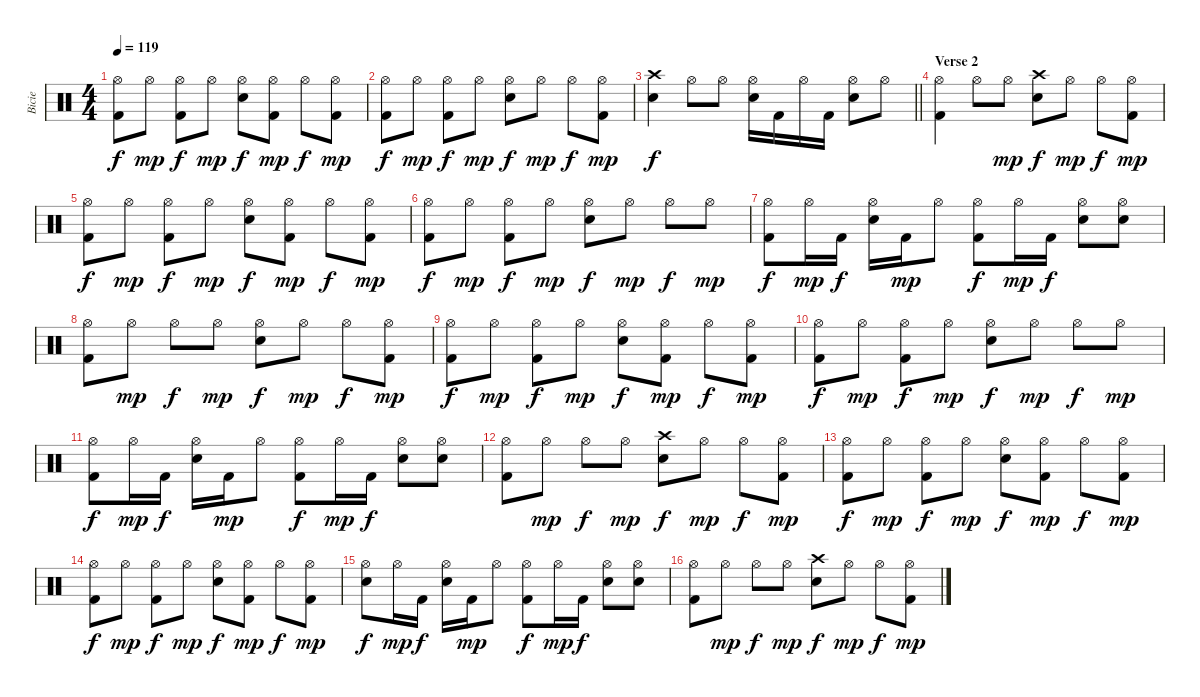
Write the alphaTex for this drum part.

\track ("Bicie" "Bicie") {instrument percussion}
\staff {score}
\articulation defaults
\ts (4 4)
\tempo 119
\clef neutral
\ks c
("Hi-Hat (open)" "Kick (hit) 2").8{dy f} "Hi-Hat (open)".8{dy mp} ("Hi-Hat (open)" "Kick (hit) 2").8{dy f} "Hi-Hat (open)".8{dy mp} ("Hi-Hat (open)" "Snare (hit) 2").8{dy f} ("Hi-Hat (open)" "Kick (hit) 2").8{dy mp} "Hi-Hat (open)".8{dy f} ("Hi-Hat (open)" "Kick (hit) 2").8{dy mp} |
("Hi-Hat (open)" "Kick (hit) 2").8{dy f} "Hi-Hat (open)".8{dy mp} ("Hi-Hat (open)" "Kick (hit) 2").8{dy f} "Hi-Hat (open)".8{dy mp} ("Hi-Hat (open)" "Snare (hit) 2").8{dy f} "Hi-Hat (open)".8{dy mp} "Hi-Hat (open)".8{dy f} ("Hi-Hat (open)" "Kick (hit) 2").8{dy mp} |
\barLineRight lightlight
("Crash high (hit)" "Snare (hit) 2").4{dy f} "Hi-Hat (open)".8 "Hi-Hat (open)".8 ("Hi-Hat (open)" "Snare (hit) 2").16 "Kick (hit) 2".16 "Hi-Hat (open)".16 "Kick (hit) 2".16 ("Hi-Hat (open)" "Snare (hit) 2").8 "Hi-Hat (open)".8 |
\section ("" "Verse 2")
("Hi-Hat (open)" "Kick (hit) 2").4 "Hi-Hat (open)".8 "Hi-Hat (open)".8{dy mp} ("Crash high (hit)" "Snare (hit) 2").8{dy f} "Hi-Hat (open)".8{dy mp} "Hi-Hat (open)".8{dy f} ("Hi-Hat (open)" "Kick (hit) 2").8{dy mp} |
("Hi-Hat (open)" "Kick (hit) 2").8{dy f} "Hi-Hat (open)".8{dy mp} ("Hi-Hat (open)" "Kick (hit) 2").8{dy f} "Hi-Hat (open)".8{dy mp} ("Hi-Hat (open)" "Snare (hit) 2").8{dy f} ("Hi-Hat (open)" "Kick (hit) 2").8{dy mp} "Hi-Hat (open)".8{dy f} ("Hi-Hat (open)" "Kick (hit) 2").8{dy mp} |
("Hi-Hat (open)" "Kick (hit) 2").8{dy f} "Hi-Hat (open)".8{dy mp} ("Hi-Hat (open)" "Kick (hit) 2").8{dy f} "Hi-Hat (open)".8{dy mp} ("Hi-Hat (open)" "Snare (hit) 2").8{dy f} "Hi-Hat (open)".8{dy mp} "Hi-Hat (open)".8{dy f} "Hi-Hat (open)".8{dy mp} |
("Hi-Hat (open)" "Kick (hit) 2").8{dy f} "Hi-Hat (open)".16{dy mp} "Kick (hit) 2".16{dy f} ("Hi-Hat (open)" "Snare (hit) 2").16 "Kick (hit) 2".16{dy mp} "Hi-Hat (open)".8 ("Hi-Hat (open)" "Kick (hit) 2").8{dy f} "Hi-Hat (open)".16{dy mp} "Kick (hit) 2".16{dy f} ("Hi-Hat (open)" "Snare (hit) 2").8 ("Hi-Hat (open)" "Snare (hit) 2").8 |
("Hi-Hat (open)" "Kick (hit) 2").8 "Hi-Hat (open)".8{dy mp} "Hi-Hat (open)".8{dy f} "Hi-Hat (open)".8{dy mp} ("Hi-Hat (open)" "Snare (hit) 2").8{dy f} "Hi-Hat (open)".8{dy mp} "Hi-Hat (open)".8{dy f} ("Hi-Hat (open)" "Kick (hit) 2").8{dy mp} |
("Hi-Hat (open)" "Kick (hit) 2").8{dy f} "Hi-Hat (open)".8{dy mp} ("Hi-Hat (open)" "Kick (hit) 2").8{dy f} "Hi-Hat (open)".8{dy mp} ("Hi-Hat (open)" "Snare (hit) 2").8{dy f} ("Hi-Hat (open)" "Kick (hit) 2").8{dy mp} "Hi-Hat (open)".8{dy f} ("Hi-Hat (open)" "Kick (hit) 2").8{dy mp} |
("Hi-Hat (open)" "Kick (hit) 2").8{dy f} "Hi-Hat (open)".8{dy mp} ("Hi-Hat (open)" "Kick (hit) 2").8{dy f} "Hi-Hat (open)".8{dy mp} ("Hi-Hat (open)" "Snare (hit) 2").8{dy f} "Hi-Hat (open)".8{dy mp} "Hi-Hat (open)".8{dy f} "Hi-Hat (open)".8{dy mp} |
("Hi-Hat (open)" "Kick (hit) 2").8{dy f} "Hi-Hat (open)".16{dy mp} "Kick (hit) 2".16{dy f} ("Hi-Hat (open)" "Snare (hit) 2").16 "Kick (hit) 2".16{dy mp} "Hi-Hat (open)".8 ("Hi-Hat (open)" "Kick (hit) 2").8{dy f} "Hi-Hat (open)".16{dy mp} "Kick (hit) 2".16{dy f} ("Hi-Hat (open)" "Snare (hit) 2").8 ("Hi-Hat (open)" "Snare (hit) 2").8 |
("Hi-Hat (open)" "Kick (hit) 2").8 "Hi-Hat (open)".8{dy mp} "Hi-Hat (open)".8{dy f} "Hi-Hat (open)".8{dy mp} ("Crash high (hit)" "Snare (hit) 2").8{dy f} "Hi-Hat (open)".8{dy mp} "Hi-Hat (open)".8{dy f} ("Hi-Hat (open)" "Kick (hit) 2").8{dy mp} |
("Hi-Hat (open)" "Kick (hit) 2").8{dy f} "Hi-Hat (open)".8{dy mp} ("Hi-Hat (open)" "Kick (hit) 2").8{dy f} "Hi-Hat (open)".8{dy mp} ("Hi-Hat (open)" "Snare (hit) 2").8{dy f} ("Hi-Hat (open)" "Kick (hit) 2").8{dy mp} "Hi-Hat (open)".8{dy f} ("Hi-Hat (open)" "Kick (hit) 2").8{dy mp} |
("Hi-Hat (open)" "Kick (hit) 2").8{dy f} "Hi-Hat (open)".8{dy mp} ("Hi-Hat (open)" "Kick (hit) 2").8{dy f} "Hi-Hat (open)".8{dy mp} ("Hi-Hat (open)" "Snare (hit) 2").8{dy f} ("Hi-Hat (open)" "Kick (hit) 2").8{dy mp} "Hi-Hat (open)".8{dy f} ("Hi-Hat (open)" "Kick (hit) 2").8{dy mp} |
("Hi-Hat (open)" "Snare (hit) 2").8{dy f} "Hi-Hat (open)".16{dy mp} "Kick (hit) 2".16{dy f} ("Hi-Hat (open)" "Snare (hit) 2").16 "Kick (hit) 2".16{dy mp} "Hi-Hat (open)".8 ("Hi-Hat (open)" "Kick (hit) 2").8{dy f} "Hi-Hat (open)".16{dy mp} "Kick (hit) 2".16{dy f} ("Hi-Hat (open)" "Snare (hit) 2").8 ("Hi-Hat (open)" "Snare (hit) 2").8 |
("Hi-Hat (open)" "Kick (hit) 2").8 "Hi-Hat (open)".8{dy mp} "Hi-Hat (open)".8{dy f} "Hi-Hat (open)".8{dy mp} ("Crash high (hit)" "Snare (hit) 2").8{dy f} "Hi-Hat (open)".8{dy mp} "Hi-Hat (open)".8{dy f} ("Hi-Hat (open)" "Kick (hit) 2").8{dy mp}
